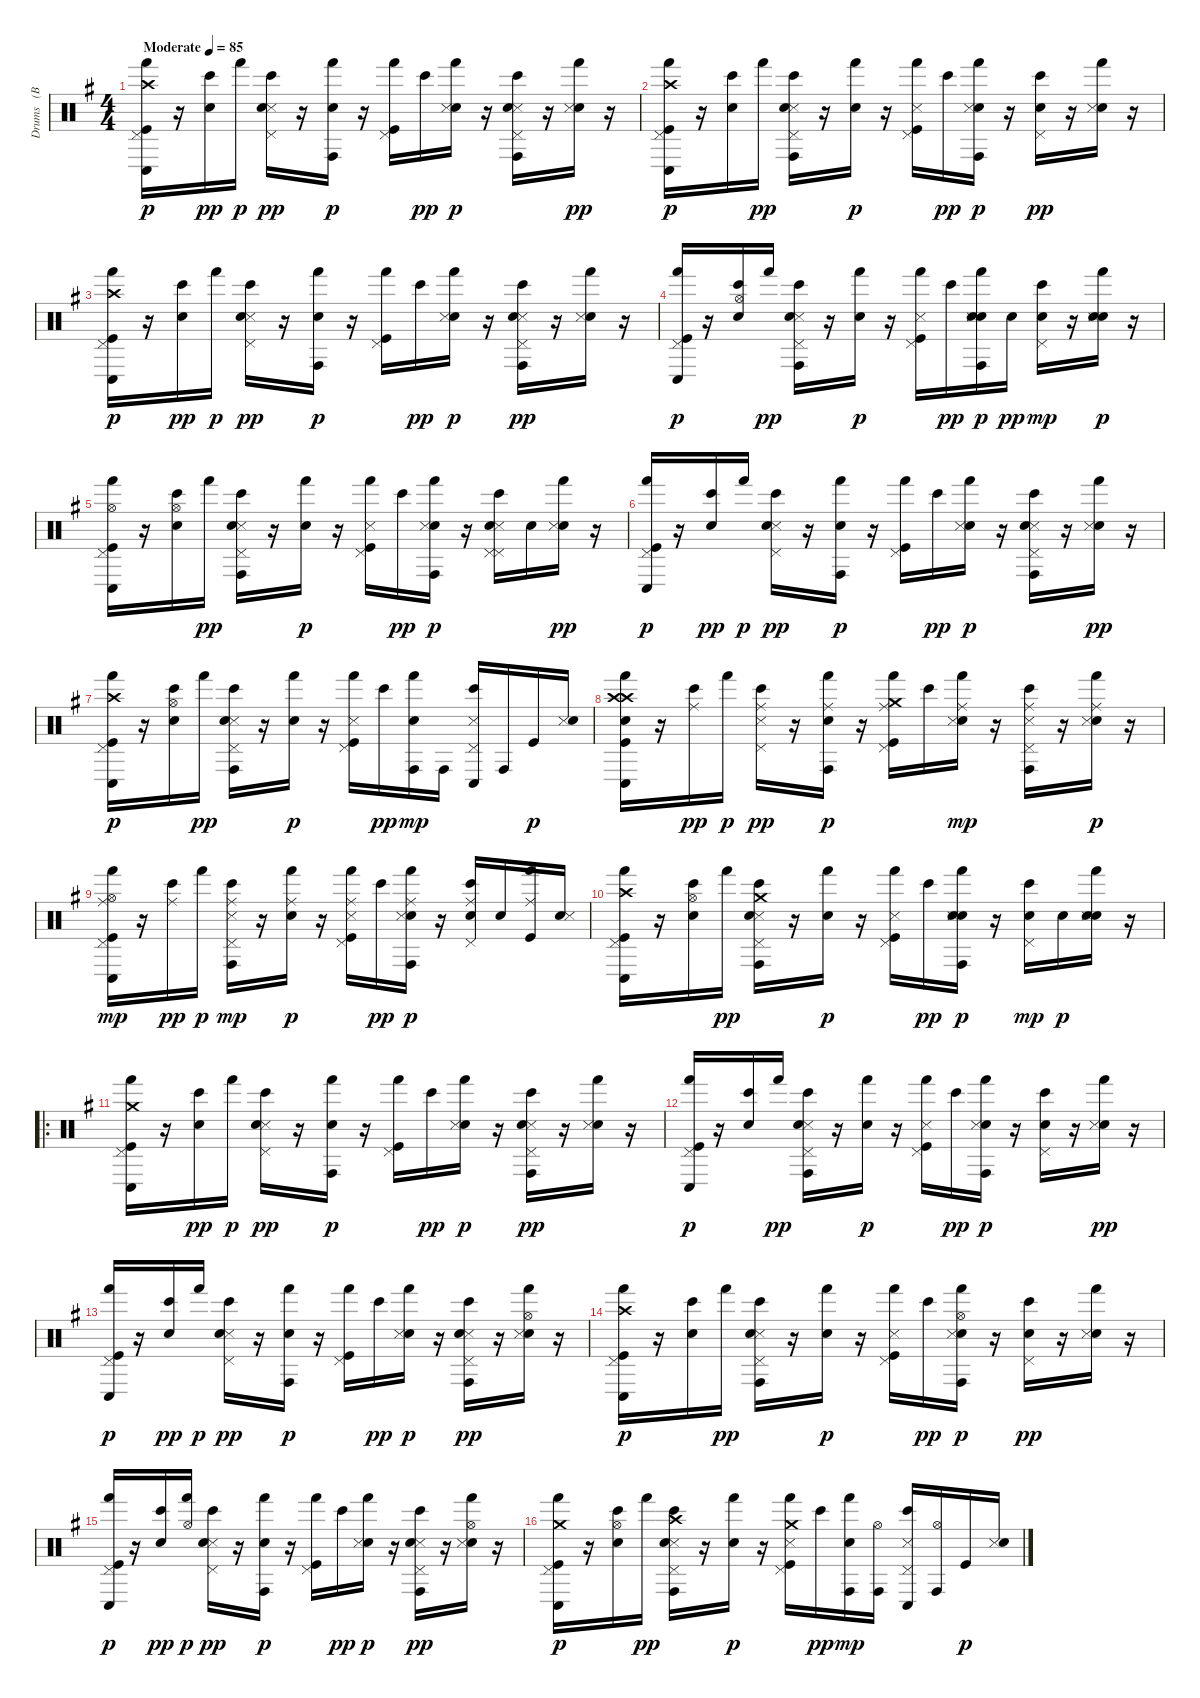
\track ("Drums   (BB)" "Drums   (B") {instrument percussion}
\staff {score}
\articulation defaults
\ts (4 4)
\tempo (85 "Moderate")
\clef neutral
\ks eminor
("Kick (hit)" "Pedal Hi-Hat (hit)" "Hand (hit)" "Conga low (hit)" "Crash high (hit)").16{dy p} r.16 ("Snare (hit) 2" "Bongo High (hit)").16{dy pp} "Hand (hit)".16{dy p} ("Pedal Hi-Hat (hit)" "Snare (side stick) 3" "Bongo High (hit)" "Hand Clap (hit)").16{dy pp} r.16 ("Snare (hit) 2" "Hand (hit)" "Conga high (hit)").16{dy p} r.16 ("Kick (hit)" "Pedal Hi-Hat (hit)" "Hand (hit)").16 "Bongo High (hit)".16{dy pp} ("Snare (hit) 2" "Snare (side stick) 3" "Hand (hit)").16{dy p} r.16 ("Pedal Hi-Hat (hit)" "Snare (side stick) 3" "Bongo High (hit)" "Conga high (hit)" "Hand Clap (hit)").16 r.16 ("Snare (hit) 2" "Snare (side stick) 3" "Hand (hit)").16{dy pp} r.16 |
("Kick (hit)" "Pedal Hi-Hat (hit)" "Hand (hit)" "Conga low (hit)" "Crash high (hit)").16{dy p} r.16 ("Snare (hit) 2" "Bongo High (hit)").16 "Hand (hit)".16{dy pp} ("Pedal Hi-Hat (hit)" "Snare (side stick) 3" "Bongo High (hit)" "Conga high (hit)" "Hand Clap (hit)").16 r.16 ("Snare (hit) 2" "Hand (hit)").16{dy p} r.16 ("Kick (hit)" "Pedal Hi-Hat (hit)" "Snare (side stick) 3" "Hand (hit)").16 "Bongo High (hit)".16{dy pp} ("Snare (hit) 2" "Snare (side stick) 3" "Hand (hit)" "Conga high (hit)").16{dy p} r.16 ("Pedal Hi-Hat (hit)" "Bongo High (hit)" "Hand Clap (hit)").16{dy pp} r.16 ("Snare (hit) 2" "Snare (side stick) 3" "Hand (hit)").16 r.16 |
("Kick (hit)" "Pedal Hi-Hat (hit)" "Hand (hit)" "Conga low (hit)" "Crash high (hit)").16{dy p} r.16 ("Snare (hit) 2" "Bongo High (hit)").16{dy pp} "Hand (hit)".16{dy p} ("Pedal Hi-Hat (hit)" "Snare (side stick) 3" "Bongo High (hit)" "Hand Clap (hit)").16{dy pp} r.16 ("Snare (hit) 2" "Hand (hit)" "Conga high (hit)").16{dy p} r.16 ("Kick (hit)" "Pedal Hi-Hat (hit)" "Hand (hit)").16 "Bongo High (hit)".16{dy pp} ("Snare (hit) 2" "Snare (side stick) 3" "Hand (hit)").16{dy p} r.16 ("Pedal Hi-Hat (hit)" "Snare (side stick) 3" "Bongo High (hit)" "Conga high (hit)" "Hand Clap (hit)").16{dy pp} r.16 ("Snare (hit) 2" "Snare (side stick) 3" "Hand (hit)").16 r.16 |
("Kick (hit)" "Pedal Hi-Hat (hit)" "Hand (hit)" "Conga low (hit)").16{dy p} r.16 ("Snare (hit) 2" "Hi-Hat (open)" "Bongo High (hit)").16 "Hand (hit)".16{dy pp} ("Pedal Hi-Hat (hit)" "Snare (side stick) 3" "Bongo High (hit)" "Conga high (hit)" "Hand Clap (hit)").16 r.16 ("Snare (hit) 2" "Hand (hit)").16{dy p} r.16 ("Kick (hit)" "Pedal Hi-Hat (hit)" "Snare (side stick) 3" "Hand (hit)").16 "Bongo High (hit)".16{dy pp} ("Snare (hit) 2" "Snare (side stick) 3" "Hand (hit)" "Conga high (hit)" "Hand Clap (hit)").16{dy p} "Hand Clap (hit)".16{dy pp} ("Pedal Hi-Hat (hit)" "Bongo High (hit)" "Hand Clap (hit)").16{dy mp} r.16 ("Snare (hit) 2" "Snare (side stick) 3" "Hand (hit)" "Hand Clap (hit)").16{dy p} r.16 |
("Kick (hit)" "Pedal Hi-Hat (hit)" "Hand (hit)" "Conga low (hit)" "Hi-Hat (open)").16 r.16 ("Snare (hit) 2" "Hi-Hat (open)" "Bongo High (hit)").16 "Hand (hit)".16{dy pp} ("Pedal Hi-Hat (hit)" "Snare (side stick) 3" "Bongo High (hit)" "Conga high (hit)" "Hand Clap (hit)").16 r.16 ("Snare (hit) 2" "Hand (hit)").16{dy p} r.16 ("Kick (hit)" "Pedal Hi-Hat (hit)" "Snare (side stick) 3" "Hand (hit)").16 "Bongo High (hit)".16{dy pp} ("Snare (hit) 2" "Snare (side stick) 3" "Hand (hit)" "Conga high (hit)").16{dy p} r.16 ("Pedal Hi-Hat (hit)" "Snare (side stick) 3" "Bongo High (hit)" "Hand Clap (hit)" "Pedal Hi-Hat (hit)").16 "Hand Clap (hit)".16 ("Snare (hit) 2" "Snare (side stick) 3" "Hand (hit)").16{dy pp} r.16 |
("Kick (hit)" "Pedal Hi-Hat (hit)" "Hand (hit)" "Conga low (hit)").16{dy p} r.16 ("Snare (hit) 2" "Bongo High (hit)").16{dy pp} "Hand (hit)".16{dy p} ("Pedal Hi-Hat (hit)" "Snare (side stick) 3" "Bongo High (hit)" "Hand Clap (hit)").16{dy pp} r.16 ("Snare (hit) 2" "Hand (hit)" "Conga high (hit)").16{dy p} r.16 ("Kick (hit)" "Pedal Hi-Hat (hit)" "Hand (hit)").16 "Bongo High (hit)".16{dy pp} ("Snare (hit) 2" "Snare (side stick) 3" "Hand (hit)").16{dy p} r.16 ("Pedal Hi-Hat (hit)" "Snare (side stick) 3" "Bongo High (hit)" "Conga high (hit)" "Hand Clap (hit)").16 r.16 ("Snare (hit) 2" "Snare (side stick) 3" "Hand (hit)").16{dy pp} r.16 |
("Kick (hit)" "Pedal Hi-Hat (hit)" "Hand (hit)" "Conga low (hit)" "Crash high (hit)").16{dy p} r.16 ("Snare (hit) 2" "Hi-Hat (open)" "Bongo High (hit)").16 "Hand (hit)".16{dy pp} ("Pedal Hi-Hat (hit)" "Snare (side stick) 3" "Bongo High (hit)" "Conga high (hit)" "Hand Clap (hit)").16 r.16 ("Snare (hit) 2" "Hand (hit)").16{dy p} r.16 ("Kick (hit)" "Pedal Hi-Hat (hit)" "Snare (side stick) 3" "Hand (hit)").16 "Bongo High (hit)".16{dy pp} ("Snare (hit) 2" "Hand (hit)" "Conga high (hit)").16{dy mp} "Conga high (hit)".16 ("Pedal Hi-Hat (hit)" "Snare (side stick) 3" "Bongo High (hit)" "Conga low (hit)").16 "Conga high (hit)".16 "Kick (hit)".16{dy p} ("Snare (side stick) 3" "Hand Clap (hit)").16 |
("Kick (hit)" "Snare (hit) 2" "Crash high (hit)" "Hand (hit)" "Conga low (hit)" "Crash high (hit)").16 r.16 ("Ride (middle)" "Bongo High (hit)").16{dy pp} "Hand (hit)".16{dy p} ("Pedal Hi-Hat (hit)" "Snare (side stick) 3" "Ride (middle)" "Bongo High (hit)").16{dy pp} r.16 ("Snare (hit) 2" "Ride (middle)" "Hand (hit)" "Conga high (hit)").16{dy p} r.16 ("Kick (hit)" "Pedal Hi-Hat (hit)" "Ride (middle)" "Hand (hit)" "Crash medium (hit)").16 "Bongo High (hit)".16 ("Snare (hit) 2" "Snare (side stick) 3" "Ride (middle)" "Hand (hit)").16{dy mp} r.16 ("Pedal Hi-Hat (hit)" "Snare (side stick) 3" "Ride (middle)" "Bongo High (hit)" "Conga high (hit)").16 r.16 ("Snare (hit) 2" "Snare (side stick) 3" "Ride (middle)" "Hand (hit)").16{dy p} r.16 |
("Kick (hit)" "Pedal Hi-Hat (hit)" "Ride (middle)" "Hand (hit)" "Conga low (hit)" "Hi-Hat (open)").16{dy mp} r.16 ("Ride (middle)" "Bongo High (hit)").16{dy pp} "Hand (hit)".16{dy p} ("Pedal Hi-Hat (hit)" "Snare (side stick) 3" "Ride (middle)" "Bongo High (hit)" "Conga high (hit)").16{dy mp} r.16 ("Snare (hit) 2" "Ride (middle)" "Hand (hit)").16{dy p} r.16 ("Kick (hit)" "Pedal Hi-Hat (hit)" "Snare (side stick) 3" "Ride (middle)" "Hand (hit)").16 "Bongo High (hit)".16{dy pp} ("Snare (hit) 2" "Snare (side stick) 3" "Ride (middle)" "Hand (hit)" "Conga high (hit)").16{dy p} r.16 ("Snare (hit) 2" "Pedal Hi-Hat (hit)" "Ride (middle)" "Bongo High (hit)").16 "Snare (hit) 2".16 ("Kick (hit)" "Ride (middle)" "Hand (hit)").16 ("Snare (hit) 2" "Snare (side stick) 3").16 |
("Kick (hit)" "Pedal Hi-Hat (hit)" "Hand (hit)" "Conga low (hit)" "Crash high (hit)").16 r.16 ("Snare (hit) 2" "Hi-Hat (open)" "Bongo High (hit)").16 "Hand (hit)".16{dy pp} ("Pedal Hi-Hat (hit)" "Snare (side stick) 3" "Bongo High (hit)" "Conga high (hit)" "Hand Clap (hit)" "Crash medium (hit)").16 r.16 ("Snare (hit) 2" "Hand (hit)").16{dy p} r.16 ("Kick (hit)" "Pedal Hi-Hat (hit)" "Snare (side stick) 3" "Hand (hit)").16 "Bongo High (hit)".16{dy pp} ("Snare (hit) 2" "Snare (side stick) 3" "Hand (hit)" "Conga high (hit)" "Hand Clap (hit)").16{dy p} r.16 ("Pedal Hi-Hat (hit)" "Bongo High (hit)" "Hand Clap (hit)").16{dy mp} "Hand Clap (hit)".16{dy p} ("Snare (hit) 2" "Snare (side stick) 3" "Hand (hit)" "Hand Clap (hit)").16 r.16 |
\ro
("Kick (hit)" "Pedal Hi-Hat (hit)" "Hand (hit)" "Conga low (hit)" "Crash medium (hit)").16 r.16 ("Snare (hit) 2" "Bongo High (hit)").16{dy pp} "Hand (hit)".16{dy p} ("Pedal Hi-Hat (hit)" "Snare (side stick) 3" "Bongo High (hit)" "Hand Clap (hit)").16{dy pp} r.16 ("Snare (hit) 2" "Hand (hit)" "Conga high (hit)").16{dy p} r.16 ("Kick (hit)" "Pedal Hi-Hat (hit)" "Hand (hit)").16 "Bongo High (hit)".16{dy pp} ("Snare (hit) 2" "Snare (side stick) 3" "Hand (hit)").16{dy p} r.16 ("Pedal Hi-Hat (hit)" "Snare (side stick) 3" "Bongo High (hit)" "Conga high (hit)" "Hand Clap (hit)").16{dy pp} r.16 ("Snare (hit) 2" "Snare (side stick) 3" "Hand (hit)").16 r.16 |
("Kick (hit)" "Pedal Hi-Hat (hit)" "Hand (hit)" "Conga low (hit)").16{dy p} r.16 ("Snare (hit) 2" "Bongo High (hit)").16 "Hand (hit)".16{dy pp} ("Pedal Hi-Hat (hit)" "Snare (side stick) 3" "Bongo High (hit)" "Conga high (hit)" "Hand Clap (hit)").16 r.16 ("Snare (hit) 2" "Hand (hit)").16{dy p} r.16 ("Kick (hit)" "Pedal Hi-Hat (hit)" "Snare (side stick) 3" "Hand (hit)").16 "Bongo High (hit)".16{dy pp} ("Snare (hit) 2" "Snare (side stick) 3" "Hand (hit)" "Conga high (hit)").16{dy p} r.16 ("Pedal Hi-Hat (hit)" "Bongo High (hit)" "Hand Clap (hit)").16 r.16 ("Snare (hit) 2" "Snare (side stick) 3" "Hand (hit)").16{dy pp} r.16 |
("Kick (hit)" "Pedal Hi-Hat (hit)" "Hand (hit)" "Conga low (hit)").16{dy p} r.16 ("Snare (hit) 2" "Bongo High (hit)").16{dy pp} "Hand (hit)".16{dy p} ("Pedal Hi-Hat (hit)" "Snare (side stick) 3" "Bongo High (hit)" "Hand Clap (hit)").16{dy pp} r.16 ("Snare (hit) 2" "Hand (hit)" "Conga high (hit)").16{dy p} r.16 ("Kick (hit)" "Pedal Hi-Hat (hit)" "Hand (hit)").16 "Bongo High (hit)".16{dy pp} ("Snare (hit) 2" "Snare (side stick) 3" "Hand (hit)").16{dy p} r.16 ("Pedal Hi-Hat (hit)" "Snare (side stick) 3" "Bongo High (hit)" "Conga high (hit)" "Hand Clap (hit)").16{dy pp} r.16 ("Snare (hit) 2" "Hi-Hat (open)" "Snare (side stick) 3" "Hand (hit)").16 r.16 |
("Kick (hit)" "Pedal Hi-Hat (hit)" "Hand (hit)" "Conga low (hit)" "Crash high (hit)").16{dy p} r.16 ("Snare (hit) 2" "Bongo High (hit)").16 "Hand (hit)".16{dy pp} ("Pedal Hi-Hat (hit)" "Snare (side stick) 3" "Bongo High (hit)" "Conga high (hit)" "Hand Clap (hit)").16 r.16 ("Snare (hit) 2" "Hand (hit)").16{dy p} r.16 ("Kick (hit)" "Pedal Hi-Hat (hit)" "Snare (side stick) 3" "Hand (hit)").16 "Bongo High (hit)".16{dy pp} ("Snare (hit) 2" "Hi-Hat (open)" "Snare (side stick) 3" "Hand (hit)" "Conga high (hit)").16{dy p} r.16 ("Pedal Hi-Hat (hit)" "Bongo High (hit)" "Hand Clap (hit)").16{dy pp} r.16 ("Snare (hit) 2" "Snare (side stick) 3" "Hand (hit)").16 r.16 |
("Kick (hit)" "Pedal Hi-Hat (hit)" "Hand (hit)" "Conga low (hit)").16{dy p} r.16 ("Snare (hit) 2" "Bongo High (hit)").16{dy pp} ("Hand (hit)" "Hi-Hat (open)").16{dy p} ("Pedal Hi-Hat (hit)" "Snare (side stick) 3" "Bongo High (hit)" "Hand Clap (hit)").16{dy pp} r.16 ("Snare (hit) 2" "Hand (hit)" "Conga high (hit)").16{dy p} r.16 ("Kick (hit)" "Pedal Hi-Hat (hit)" "Hand (hit)").16 "Bongo High (hit)".16{dy pp} ("Snare (hit) 2" "Snare (side stick) 3" "Hand (hit)").16{dy p} r.16 ("Pedal Hi-Hat (hit)" "Snare (side stick) 3" "Bongo High (hit)" "Conga high (hit)" "Hand Clap (hit)").16{dy pp} r.16 ("Snare (hit) 2" "Hi-Hat (open)" "Snare (side stick) 3" "Hand (hit)").16 r.16 |
("Kick (hit)" "Pedal Hi-Hat (hit)" "Hand (hit)" "Conga low (hit)" "Crash medium (hit)").16{dy p} r.16 ("Snare (hit) 2" "Hi-Hat (open)" "Bongo High (hit)").16 "Hand (hit)".16{dy pp} ("Pedal Hi-Hat (hit)" "Snare (side stick) 3" "Bongo High (hit)" "Conga high (hit)" "Hand Clap (hit)" "Crash high (hit)").16 r.16 ("Snare (hit) 2" "Hand (hit)").16{dy p} r.16 ("Kick (hit)" "Pedal Hi-Hat (hit)" "Snare (side stick) 3" "Hand (hit)" "Crash medium (hit)").16 "Bongo High (hit)".16{dy pp} ("Snare (hit) 2" "Hand (hit)" "Conga high (hit)").16{dy mp} ("Conga high (hit)" "Hi-Hat (open)").16 ("Pedal Hi-Hat (hit)" "Snare (side stick) 3" "Bongo High (hit)" "Conga low (hit)").16 ("Conga high (hit)" "Hi-Hat (open)").16 "Kick (hit)".16{dy p} ("Snare (side stick) 3" "Hand Clap (hit)").16
